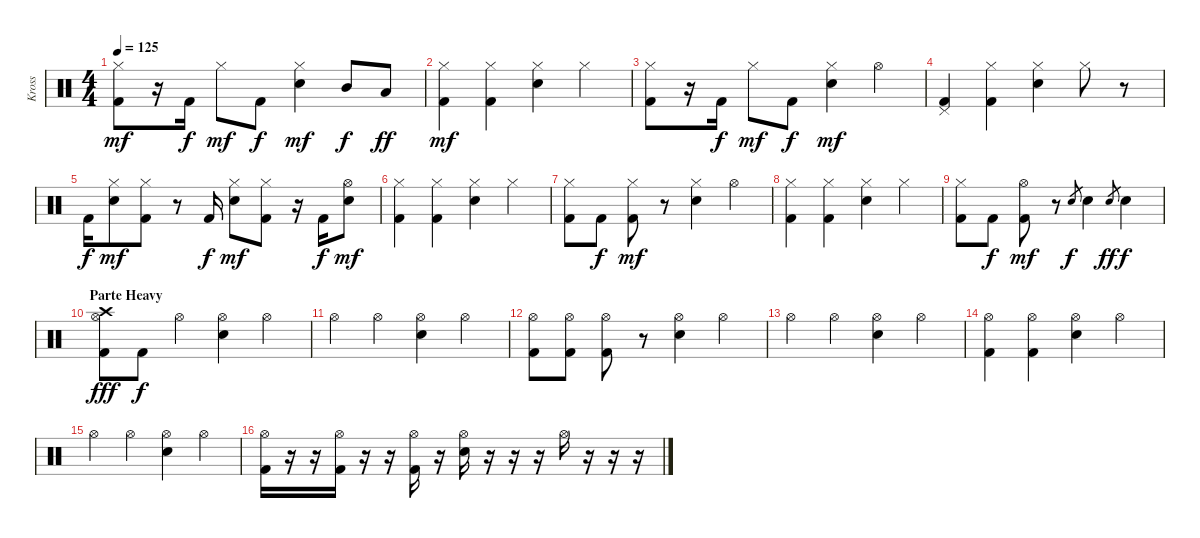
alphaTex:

\track ("Kross" "Kross") {instrument percussion}
\staff {score}
\articulation defaults
\ts (4 4)
\tempo 125
\clef neutral
\ks c
("Hi-Hat (closed)" "Kick (hit) 2").8{dy mf} r.16 "Kick (hit) 2".16{dy f} "Hi-Hat (closed)".8{dy mf} "Kick (hit) 2".8{dy f} ("Hi-Hat (closed)" "Electric Snare (hit)").4{dy mf} "Mid Tom (hit)".8{dy f} "Low Tom (hit)".8{dy ff} |
("Hi-Hat (closed)" "Kick (hit) 2").4{dy mf} ("Hi-Hat (closed)" "Kick (hit) 2").4 ("Hi-Hat (closed)" "Electric Snare (hit)").4 "Hi-Hat (closed)".4 |
("Hi-Hat (closed)" "Kick (hit) 2").8 r.16 "Kick (hit) 2".16{dy f} "Hi-Hat (closed)".8{dy mf} "Kick (hit) 2".8{dy f} ("Hi-Hat (closed)" "Electric Snare (hit)").4{dy mf} "Hi-Hat (open)".4 |
("Pedal Hi-Hat (hit)" "Kick (hit) 2").4 ("Hi-Hat (closed)" "Kick (hit) 2").4 ("Hi-Hat (closed)" "Electric Snare (hit)").4 "Hi-Hat (closed)".8 r.8 |
"Kick (hit) 2".16{dy f} ("Hi-Hat (closed)" "Electric Snare (hit)").8{dy mf} ("Hi-Hat (closed)" "Kick (hit) 2").8 r.8 "Kick (hit) 2".16{dy f} ("Hi-Hat (closed)" "Electric Snare (hit)").8{dy mf} ("Hi-Hat (closed)" "Kick (hit) 2").8 r.16 "Kick (hit) 2".16{dy f} ("Hi-Hat (open)" "Electric Snare (hit)").8{dy mf} |
("Hi-Hat (closed)" "Kick (hit) 2").4 ("Hi-Hat (closed)" "Kick (hit) 2").4 ("Hi-Hat (closed)" "Electric Snare (hit)").4 "Hi-Hat (closed)".4 |
("Hi-Hat (closed)" "Kick (hit) 2").8 "Kick (hit) 2".8{dy f} ("Hi-Hat (closed)" "Kick (hit) 2").8{dy mf} r.8 ("Hi-Hat (closed)" "Electric Snare (hit)").4 "Hi-Hat (open)".4 |
("Hi-Hat (closed)" "Kick (hit) 2").4 ("Hi-Hat (closed)" "Kick (hit) 2").4 ("Hi-Hat (closed)" "Electric Snare (hit)").4 "Hi-Hat (closed)".4 |
("Hi-Hat (closed)" "Kick (hit) 2").8 "Kick (hit) 2".8{dy f} ("Hi-Hat (open)" "Kick (hit) 2").8{dy mf} r.8 "Electric Snare (hit)".8{gr dy f} "Electric Snare (hit)".4 "Electric Snare (hit)".8{gr dy ff} "Electric Snare (hit)".4{dy f} |
\section ("" "Parte Heavy")
("Crash high (hit)" "Hi-Hat (open)" "Kick (hit) 2").8{dy fff} "Kick (hit) 2".8{dy f} "Hi-Hat (open)".4 ("Hi-Hat (open)" "Electric Snare (hit)").4 "Hi-Hat (open)".4 |
"Hi-Hat (open)".4 "Hi-Hat (open)".4 ("Hi-Hat (open)" "Electric Snare (hit)").4 "Hi-Hat (open)".4 |
("Hi-Hat (open)" "Kick (hit) 2").8 ("Hi-Hat (open)" "Kick (hit) 2").8 ("Hi-Hat (open)" "Kick (hit) 2").8 r.8 ("Hi-Hat (open)" "Electric Snare (hit)").4 "Hi-Hat (open)".4 |
"Hi-Hat (open)".4 "Hi-Hat (open)".4 ("Hi-Hat (open)" "Electric Snare (hit)").4 "Hi-Hat (open)".4 |
("Hi-Hat (open)" "Kick (hit) 2").4 ("Hi-Hat (open)" "Kick (hit) 2").4 ("Hi-Hat (open)" "Electric Snare (hit)").4 "Hi-Hat (open)".4 |
"Hi-Hat (open)".4 "Hi-Hat (open)".4 ("Hi-Hat (open)" "Electric Snare (hit)").4 "Hi-Hat (open)".4 |
("Hi-Hat (open)" "Kick (hit) 2").16 r.16 r.16 ("Hi-Hat (open)" "Kick (hit) 2").16 r.16 r.16 ("Hi-Hat (open)" "Kick (hit) 2").16 r.16 ("Hi-Hat (open)" "Electric Snare (hit)").16 r.16 r.16 r.16 "Hi-Hat (open)".16 r.16 r.16 r.16
